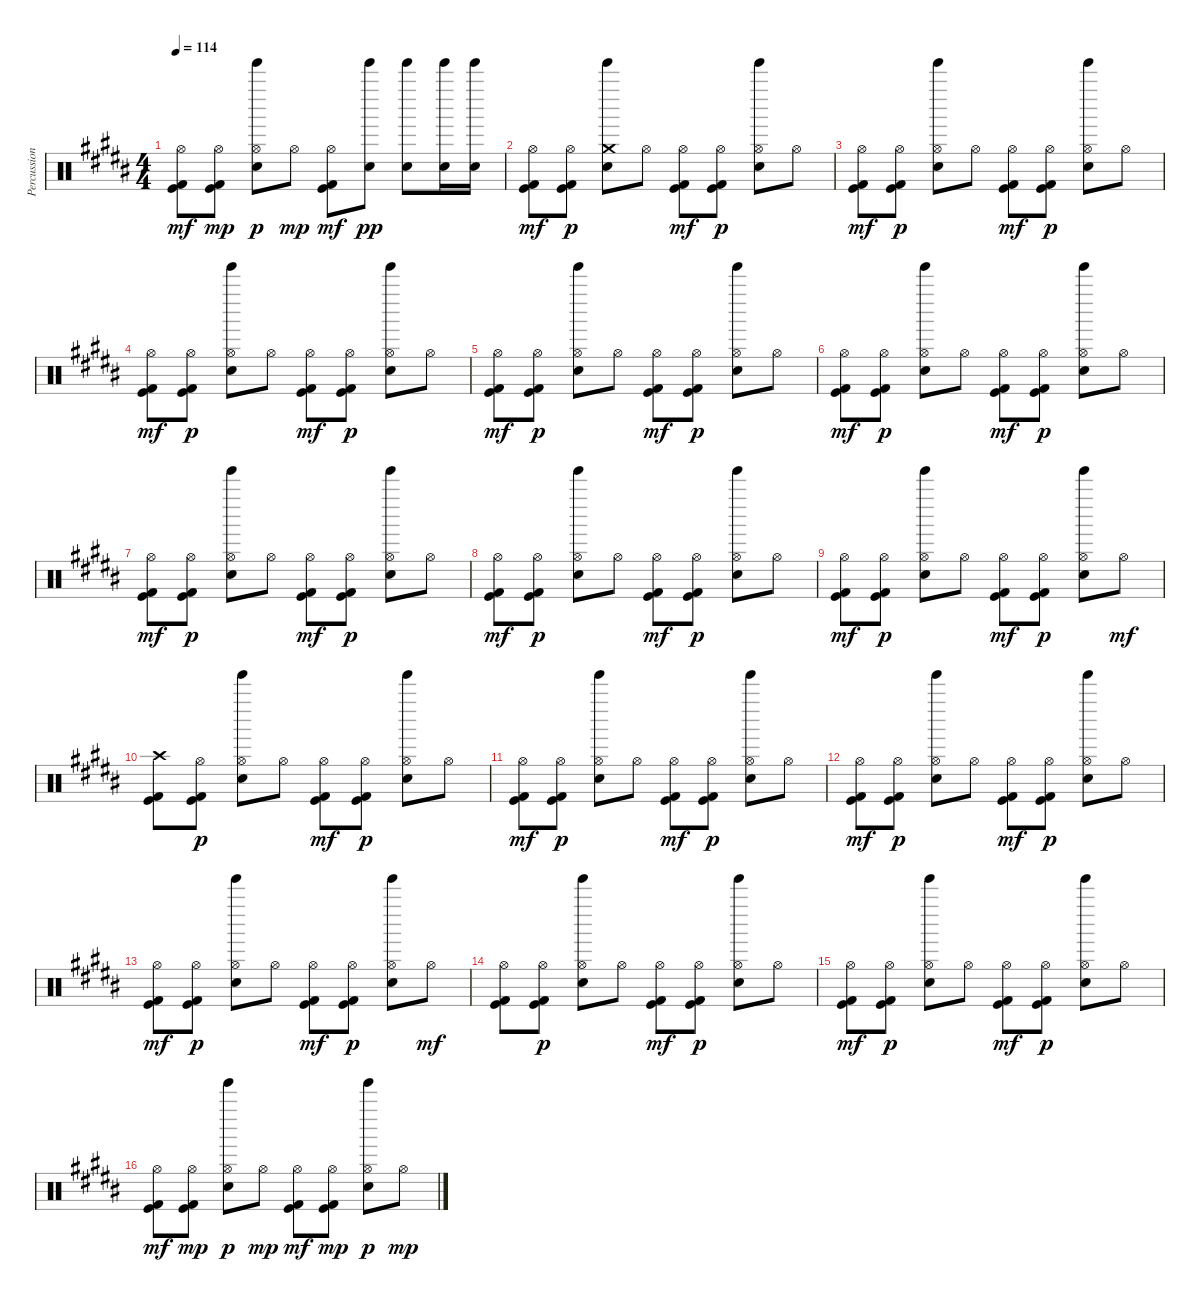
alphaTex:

\track ("Percussion" "Percussion") {instrument percussion}
\staff {score}
\articulation defaults
\ts (4 4)
\tempo 114
\clef neutral
\ks g#minor
("Hi-Hat (open)" "Kick (hit)" "Kick (hit) 2").8{dy mf} ("Hi-Hat (open)" "Kick (hit)" "Kick (hit) 2").8{dy mp} ("Hi-Hat (open)" "Electric Snare (hit)" "Tinkle Bell (hit)").8{dy p} "Hi-Hat (open)".8{dy mp} ("Hi-Hat (open)" "Kick (hit)" "Kick (hit) 2").8{dy mf} ("Electric Snare (hit)" "Tinkle Bell (hit)").8{dy pp} ("Electric Snare (hit)" "Tinkle Bell (hit)").8 ("Electric Snare (hit)" "Tinkle Bell (hit)").16 ("Electric Snare (hit)" "Tinkle Bell (hit)").16 |
("Hi-Hat (open)" "Kick (hit)" "Kick (hit) 2").8{dy mf} ("Hi-Hat (open)" "Kick (hit)" "Kick (hit) 2").8{dy p} ("Crash medium (hit)" "Electric Snare (hit)" "Tinkle Bell (hit)").8 "Hi-Hat (open)".8 ("Hi-Hat (open)" "Kick (hit)" "Kick (hit) 2").8{dy mf} ("Hi-Hat (open)" "Kick (hit)" "Kick (hit) 2").8{dy p} ("Hi-Hat (open)" "Electric Snare (hit)" "Tinkle Bell (hit)").8 "Hi-Hat (open)".8 |
("Hi-Hat (open)" "Kick (hit)" "Kick (hit) 2").8{dy mf} ("Hi-Hat (open)" "Kick (hit)" "Kick (hit) 2").8{dy p} ("Hi-Hat (open)" "Electric Snare (hit)" "Tinkle Bell (hit)").8 "Hi-Hat (open)".8 ("Hi-Hat (open)" "Kick (hit)" "Kick (hit) 2").8{dy mf} ("Hi-Hat (open)" "Kick (hit)" "Kick (hit) 2").8{dy p} ("Hi-Hat (open)" "Electric Snare (hit)" "Tinkle Bell (hit)").8 "Hi-Hat (open)".8 |
("Hi-Hat (open)" "Kick (hit)" "Kick (hit) 2").8{dy mf} ("Hi-Hat (open)" "Kick (hit)" "Kick (hit) 2").8{dy p} ("Hi-Hat (open)" "Electric Snare (hit)" "Tinkle Bell (hit)").8 "Hi-Hat (open)".8 ("Hi-Hat (open)" "Kick (hit)" "Kick (hit) 2").8{dy mf} ("Hi-Hat (open)" "Kick (hit)" "Kick (hit) 2").8{dy p} ("Hi-Hat (open)" "Electric Snare (hit)" "Tinkle Bell (hit)").8 "Hi-Hat (open)".8 |
("Hi-Hat (open)" "Kick (hit)" "Kick (hit) 2").8{dy mf} ("Hi-Hat (open)" "Kick (hit)" "Kick (hit) 2").8{dy p} ("Hi-Hat (open)" "Electric Snare (hit)" "Tinkle Bell (hit)").8 "Hi-Hat (open)".8 ("Hi-Hat (open)" "Kick (hit)" "Kick (hit) 2").8{dy mf} ("Hi-Hat (open)" "Kick (hit)" "Kick (hit) 2").8{dy p} ("Hi-Hat (open)" "Electric Snare (hit)" "Tinkle Bell (hit)").8 "Hi-Hat (open)".8 |
("Hi-Hat (open)" "Kick (hit)" "Kick (hit) 2").8{dy mf} ("Hi-Hat (open)" "Kick (hit)" "Kick (hit) 2").8{dy p} ("Hi-Hat (open)" "Electric Snare (hit)" "Tinkle Bell (hit)").8 "Hi-Hat (open)".8 ("Hi-Hat (open)" "Kick (hit)" "Kick (hit) 2").8{dy mf} ("Hi-Hat (open)" "Kick (hit)" "Kick (hit) 2").8{dy p} ("Hi-Hat (open)" "Electric Snare (hit)" "Tinkle Bell (hit)").8 "Hi-Hat (open)".8 |
("Hi-Hat (open)" "Kick (hit)" "Kick (hit) 2").8{dy mf} ("Hi-Hat (open)" "Kick (hit)" "Kick (hit) 2").8{dy p} ("Hi-Hat (open)" "Electric Snare (hit)" "Tinkle Bell (hit)").8 "Hi-Hat (open)".8 ("Hi-Hat (open)" "Kick (hit)" "Kick (hit) 2").8{dy mf} ("Hi-Hat (open)" "Kick (hit)" "Kick (hit) 2").8{dy p} ("Hi-Hat (open)" "Electric Snare (hit)" "Tinkle Bell (hit)").8 "Hi-Hat (open)".8 |
("Hi-Hat (open)" "Kick (hit)" "Kick (hit) 2").8{dy mf} ("Hi-Hat (open)" "Kick (hit)" "Kick (hit) 2").8{dy p} ("Hi-Hat (open)" "Electric Snare (hit)" "Tinkle Bell (hit)").8 "Hi-Hat (open)".8 ("Hi-Hat (open)" "Kick (hit)" "Kick (hit) 2").8{dy mf} ("Hi-Hat (open)" "Kick (hit)" "Kick (hit) 2").8{dy p} ("Hi-Hat (open)" "Electric Snare (hit)" "Tinkle Bell (hit)").8 "Hi-Hat (open)".8 |
("Hi-Hat (open)" "Kick (hit)" "Kick (hit) 2").8{dy mf} ("Hi-Hat (open)" "Kick (hit)" "Kick (hit) 2").8{dy p} ("Hi-Hat (open)" "Electric Snare (hit)" "Tinkle Bell (hit)").8 "Hi-Hat (open)".8 ("Hi-Hat (open)" "Kick (hit)" "Kick (hit) 2").8{dy mf} ("Hi-Hat (open)" "Kick (hit)" "Kick (hit) 2").8{dy p} ("Hi-Hat (open)" "Electric Snare (hit)" "Tinkle Bell (hit)").8 "Hi-Hat (open)".8{dy mf} |
("Crash high (hit)" "Kick (hit)" "Kick (hit) 2").8 ("Hi-Hat (open)" "Kick (hit)" "Kick (hit) 2").8{dy p} ("Hi-Hat (open)" "Electric Snare (hit)" "Tinkle Bell (hit)").8 "Hi-Hat (open)".8 ("Hi-Hat (open)" "Kick (hit)" "Kick (hit) 2").8{dy mf} ("Hi-Hat (open)" "Kick (hit)" "Kick (hit) 2").8{dy p} ("Hi-Hat (open)" "Electric Snare (hit)" "Tinkle Bell (hit)").8 "Hi-Hat (open)".8 |
("Hi-Hat (open)" "Kick (hit)" "Kick (hit) 2").8{dy mf} ("Hi-Hat (open)" "Kick (hit)" "Kick (hit) 2").8{dy p} ("Hi-Hat (open)" "Electric Snare (hit)" "Tinkle Bell (hit)").8 "Hi-Hat (open)".8 ("Hi-Hat (open)" "Kick (hit)" "Kick (hit) 2").8{dy mf} ("Hi-Hat (open)" "Kick (hit)" "Kick (hit) 2").8{dy p} ("Hi-Hat (open)" "Electric Snare (hit)" "Tinkle Bell (hit)").8 "Hi-Hat (open)".8 |
("Hi-Hat (open)" "Kick (hit)" "Kick (hit) 2").8{dy mf} ("Hi-Hat (open)" "Kick (hit)" "Kick (hit) 2").8{dy p} ("Hi-Hat (open)" "Electric Snare (hit)" "Tinkle Bell (hit)").8 "Hi-Hat (open)".8 ("Hi-Hat (open)" "Kick (hit)" "Kick (hit) 2").8{dy mf} ("Hi-Hat (open)" "Kick (hit)" "Kick (hit) 2").8{dy p} ("Hi-Hat (open)" "Electric Snare (hit)" "Tinkle Bell (hit)").8 "Hi-Hat (open)".8 |
("Hi-Hat (open)" "Kick (hit)" "Kick (hit) 2").8{dy mf} ("Hi-Hat (open)" "Kick (hit)" "Kick (hit) 2").8{dy p} ("Hi-Hat (open)" "Electric Snare (hit)" "Tinkle Bell (hit)").8 "Hi-Hat (open)".8 ("Hi-Hat (open)" "Kick (hit)" "Kick (hit) 2").8{dy mf} ("Hi-Hat (open)" "Kick (hit)" "Kick (hit) 2").8{dy p} ("Hi-Hat (open)" "Electric Snare (hit)" "Tinkle Bell (hit)").8 "Hi-Hat (open)".8{dy mf} |
("Hi-Hat (open)" "Kick (hit)" "Kick (hit) 2").8 ("Hi-Hat (open)" "Kick (hit)" "Kick (hit) 2").8{dy p} ("Hi-Hat (open)" "Electric Snare (hit)" "Tinkle Bell (hit)").8 "Hi-Hat (open)".8 ("Hi-Hat (open)" "Kick (hit)" "Kick (hit) 2").8{dy mf} ("Hi-Hat (open)" "Kick (hit)" "Kick (hit) 2").8{dy p} ("Hi-Hat (open)" "Electric Snare (hit)" "Tinkle Bell (hit)").8 "Hi-Hat (open)".8 |
("Hi-Hat (open)" "Kick (hit)" "Kick (hit) 2").8{dy mf} ("Hi-Hat (open)" "Kick (hit)" "Kick (hit) 2").8{dy p} ("Hi-Hat (open)" "Electric Snare (hit)" "Tinkle Bell (hit)").8 "Hi-Hat (open)".8 ("Hi-Hat (open)" "Kick (hit)" "Kick (hit) 2").8{dy mf} ("Hi-Hat (open)" "Kick (hit)" "Kick (hit) 2").8{dy p} ("Hi-Hat (open)" "Electric Snare (hit)" "Tinkle Bell (hit)").8 "Hi-Hat (open)".8 |
("Hi-Hat (open)" "Kick (hit)" "Kick (hit) 2").8{dy mf} ("Hi-Hat (open)" "Kick (hit)" "Kick (hit) 2").8{dy mp} ("Hi-Hat (open)" "Electric Snare (hit)" "Tinkle Bell (hit)").8{dy p} "Hi-Hat (open)".8{dy mp} ("Hi-Hat (open)" "Kick (hit)" "Kick (hit) 2").8{dy mf} ("Hi-Hat (open)" "Kick (hit)" "Kick (hit) 2").8{dy mp} ("Hi-Hat (open)" "Electric Snare (hit)" "Tinkle Bell (hit)").8{dy p} "Hi-Hat (open)".8{dy mp}
